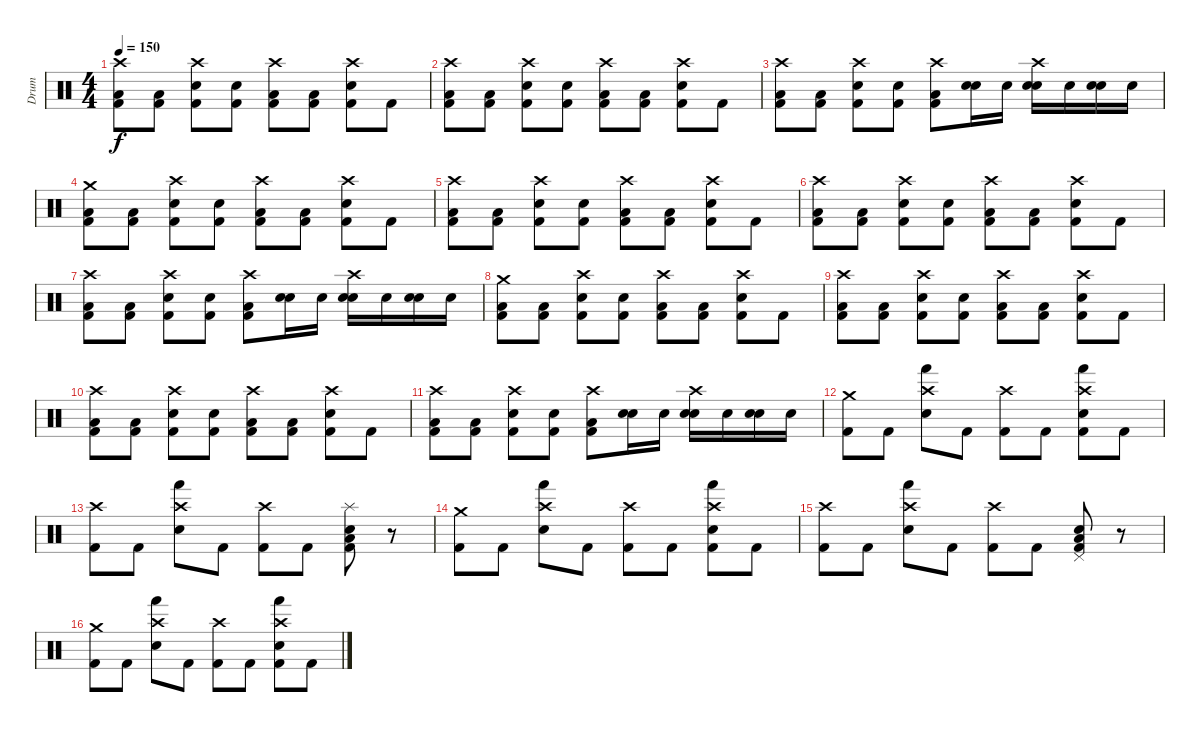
\track ("Drum" "Drum") {instrument percussion}
\staff {score}
\articulation defaults
\ts (4 4)
\tempo 150
\clef neutral
\ks c
("Crash high (hit)" "Low Floor Tom (hit)" "Kick (hit) 2").8{dy f} ("Low Floor Tom (hit)" "Kick (hit) 2").8 ("Crash high (hit)" "Snare (hit) 2" "Kick (hit) 2").8 ("Snare (hit) 2" "Kick (hit) 2").8 ("Crash high (hit)" "Low Floor Tom (hit)" "Kick (hit) 2").8 ("Low Floor Tom (hit)" "Kick (hit) 2").8 ("Crash high (hit)" "Snare (hit) 2" "Kick (hit) 2").8 "Kick (hit) 2".8 |
("Crash high (hit)" "Low Floor Tom (hit)" "Kick (hit) 2").8 ("Low Floor Tom (hit)" "Kick (hit) 2").8 ("Crash high (hit)" "Snare (hit) 2" "Kick (hit) 2").8 ("Snare (hit) 2" "Kick (hit) 2").8 ("Crash high (hit)" "Low Floor Tom (hit)" "Kick (hit) 2").8 ("Low Floor Tom (hit)" "Kick (hit) 2").8 ("Crash high (hit)" "Snare (hit) 2" "Kick (hit) 2").8 "Kick (hit) 2".8 |
("Crash high (hit)" "Low Floor Tom (hit)" "Kick (hit) 2").8 ("Low Floor Tom (hit)" "Kick (hit) 2").8 ("Crash high (hit)" "Snare (hit) 2" "Kick (hit) 2").8 ("Snare (hit) 2" "Kick (hit) 2").8 ("Crash high (hit)" "Low Floor Tom (hit)" "Kick (hit) 2").8 ("Electric Snare (hit)" "Snare (hit) 2").16 "Electric Snare (hit)".16 ("Crash high (hit)" "Electric Snare (hit)" "Snare (hit) 2").16 "Electric Snare (hit)".16 ("Electric Snare (hit)" "Snare (hit) 2").16 "Electric Snare (hit)".16 |
("Crash medium (hit)" "Low Floor Tom (hit)" "Kick (hit) 2").8 ("Low Floor Tom (hit)" "Kick (hit) 2").8 ("Crash high (hit)" "Snare (hit) 2" "Kick (hit) 2").8 ("Snare (hit) 2" "Kick (hit) 2").8 ("Crash high (hit)" "Low Floor Tom (hit)" "Kick (hit) 2").8 ("Low Floor Tom (hit)" "Kick (hit) 2").8 ("Crash high (hit)" "Snare (hit) 2" "Kick (hit) 2").8 "Kick (hit) 2".8 |
("Crash high (hit)" "Low Floor Tom (hit)" "Kick (hit) 2").8 ("Low Floor Tom (hit)" "Kick (hit) 2").8 ("Crash high (hit)" "Snare (hit) 2" "Kick (hit) 2").8 ("Snare (hit) 2" "Kick (hit) 2").8 ("Crash high (hit)" "Low Floor Tom (hit)" "Kick (hit) 2").8 ("Low Floor Tom (hit)" "Kick (hit) 2").8 ("Crash high (hit)" "Snare (hit) 2" "Kick (hit) 2").8 "Kick (hit) 2".8 |
("Crash high (hit)" "Low Floor Tom (hit)" "Kick (hit) 2").8 ("Low Floor Tom (hit)" "Kick (hit) 2").8 ("Crash high (hit)" "Snare (hit) 2" "Kick (hit) 2").8 ("Snare (hit) 2" "Kick (hit) 2").8 ("Crash high (hit)" "Low Floor Tom (hit)" "Kick (hit) 2").8 ("Low Floor Tom (hit)" "Kick (hit) 2").8 ("Crash high (hit)" "Snare (hit) 2" "Kick (hit) 2").8 "Kick (hit) 2".8 |
("Crash high (hit)" "Low Floor Tom (hit)" "Kick (hit) 2").8 ("Low Floor Tom (hit)" "Kick (hit) 2").8 ("Crash high (hit)" "Snare (hit) 2" "Kick (hit) 2").8 ("Snare (hit) 2" "Kick (hit) 2").8 ("Crash high (hit)" "Low Floor Tom (hit)" "Kick (hit) 2").8 ("Electric Snare (hit)" "Snare (hit) 2").16 "Electric Snare (hit)".16 ("Crash high (hit)" "Electric Snare (hit)" "Snare (hit) 2").16 "Electric Snare (hit)".16 ("Electric Snare (hit)" "Snare (hit) 2").16 "Electric Snare (hit)".16 |
("Crash medium (hit)" "Low Floor Tom (hit)" "Kick (hit) 2").8 ("Low Floor Tom (hit)" "Kick (hit) 2").8 ("Crash high (hit)" "Snare (hit) 2" "Kick (hit) 2").8 ("Snare (hit) 2" "Kick (hit) 2").8 ("Crash high (hit)" "Low Floor Tom (hit)" "Kick (hit) 2").8 ("Low Floor Tom (hit)" "Kick (hit) 2").8 ("Crash high (hit)" "Snare (hit) 2" "Kick (hit) 2").8 "Kick (hit) 2".8 |
("Crash high (hit)" "Low Floor Tom (hit)" "Kick (hit) 2").8 ("Low Floor Tom (hit)" "Kick (hit) 2").8 ("Crash high (hit)" "Snare (hit) 2" "Kick (hit) 2").8 ("Snare (hit) 2" "Kick (hit) 2").8 ("Crash high (hit)" "Low Floor Tom (hit)" "Kick (hit) 2").8 ("Low Floor Tom (hit)" "Kick (hit) 2").8 ("Crash high (hit)" "Snare (hit) 2" "Kick (hit) 2").8 "Kick (hit) 2".8 |
("Crash high (hit)" "Low Floor Tom (hit)" "Kick (hit) 2").8 ("Low Floor Tom (hit)" "Kick (hit) 2").8 ("Crash high (hit)" "Snare (hit) 2" "Kick (hit) 2").8 ("Snare (hit) 2" "Kick (hit) 2").8 ("Crash high (hit)" "Low Floor Tom (hit)" "Kick (hit) 2").8 ("Low Floor Tom (hit)" "Kick (hit) 2").8 ("Crash high (hit)" "Snare (hit) 2" "Kick (hit) 2").8 "Kick (hit) 2".8 |
("Crash high (hit)" "Low Floor Tom (hit)" "Kick (hit) 2").8 ("Low Floor Tom (hit)" "Kick (hit) 2").8 ("Crash high (hit)" "Snare (hit) 2" "Kick (hit) 2").8 ("Snare (hit) 2" "Kick (hit) 2").8 ("Crash high (hit)" "Low Floor Tom (hit)" "Kick (hit) 2").8 ("Electric Snare (hit)" "Snare (hit) 2").16 "Electric Snare (hit)".16 ("Crash high (hit)" "Electric Snare (hit)" "Snare (hit) 2").16 "Electric Snare (hit)".16 ("Electric Snare (hit)" "Snare (hit) 2").16 "Electric Snare (hit)".16 |
("Crash medium (hit)" "Kick (hit) 2").8 "Kick (hit) 2".8 ("Crash high (hit)" "Hand (hit)" "Electric Snare (hit)").8 "Kick (hit) 2".8 ("Crash high (hit)" "Kick (hit) 2").8 "Kick (hit) 2".8 ("Crash high (hit)" "Hand (hit)" "Electric Snare (hit)" "Kick (hit) 2").8 "Kick (hit) 2".8 |
("Crash high (hit)" "Kick (hit) 2").8 "Kick (hit) 2".8 ("Crash high (hit)" "Hand (hit)" "Electric Snare (hit)").8 "Kick (hit) 2".8 ("Crash high (hit)" "Kick (hit) 2").8 "Kick (hit) 2".8 ("Splash (hit)" "Low Floor Tom (hit)" "Electric Snare (hit)" "Kick (hit) 2").8 r.8 |
("Crash medium (hit)" "Kick (hit) 2").8 "Kick (hit) 2".8 ("Crash high (hit)" "Hand (hit)" "Electric Snare (hit)").8 "Kick (hit) 2".8 ("Crash high (hit)" "Kick (hit) 2").8 "Kick (hit) 2".8 ("Crash high (hit)" "Hand (hit)" "Electric Snare (hit)" "Kick (hit) 2").8 "Kick (hit) 2".8 |
("Crash high (hit)" "Kick (hit) 2").8 "Kick (hit) 2".8 ("Crash high (hit)" "Hand (hit)" "Electric Snare (hit)").8 "Kick (hit) 2".8 ("Crash high (hit)" "Kick (hit) 2").8 "Kick (hit) 2".8 ("Pedal Hi-Hat (hit)" "Low Floor Tom (hit)" "Electric Snare (hit)" "Kick (hit) 2").8 r.8 |
("Crash medium (hit)" "Kick (hit) 2").8 "Kick (hit) 2".8 ("Crash high (hit)" "Hand (hit)" "Electric Snare (hit)").8 "Kick (hit) 2".8 ("Crash high (hit)" "Kick (hit) 2").8 "Kick (hit) 2".8 ("Crash high (hit)" "Hand (hit)" "Electric Snare (hit)" "Kick (hit) 2").8 "Kick (hit) 2".8
